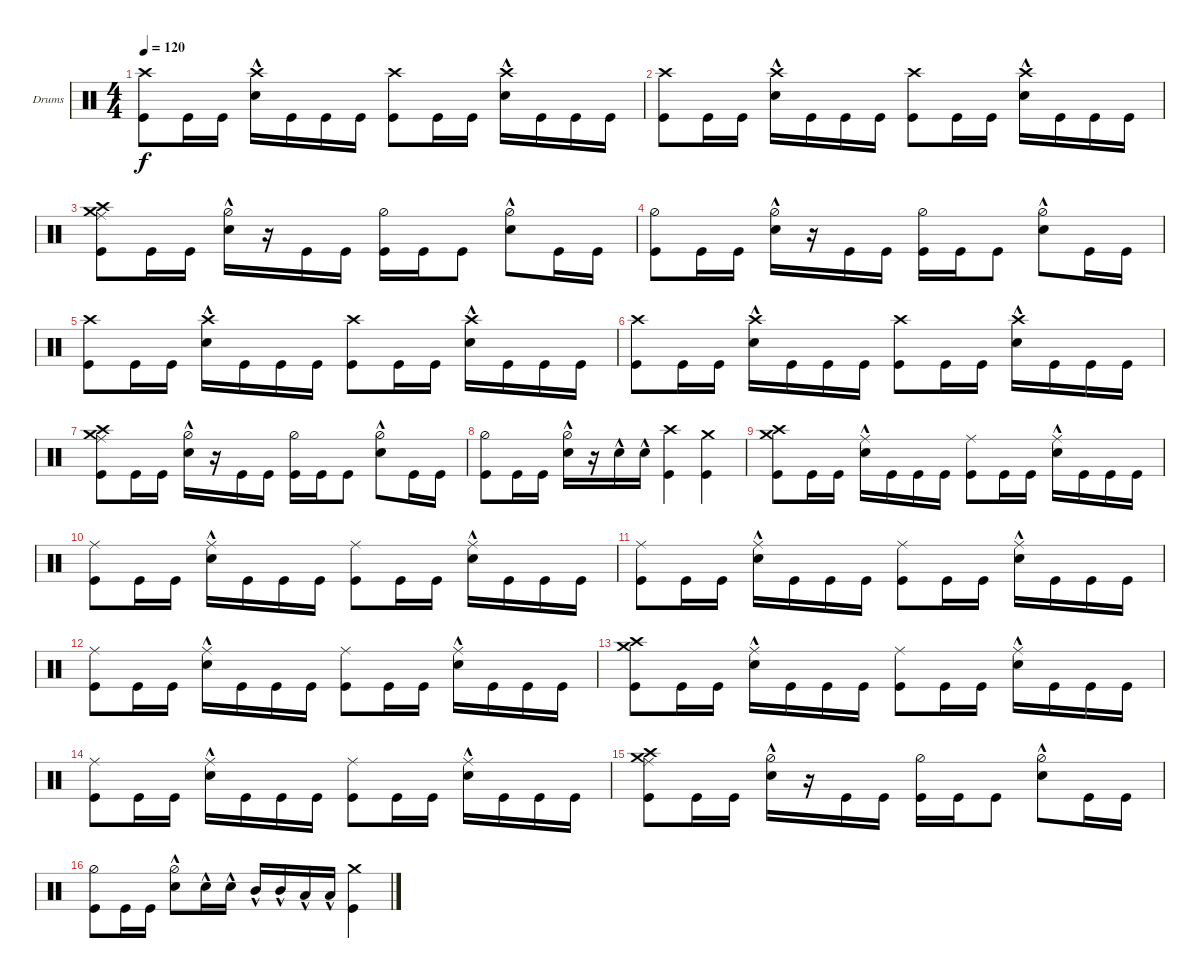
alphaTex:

\bracketExtendMode groupsimilarinstruments
\firstSystemTrackNameOrientation horizontal
\otherSystemsTrackNameOrientation horizontal
\track ("Drumkit" "Drums") {instrument percussion}
\staff {score}
\articulation defaults
\ts (4 4)
\tempo 120
\clef neutral
\scale
0.333333
\ks c
("Kick (hit)" "Crash high (hit)").8{dy f} "Kick (hit)".16 "Kick (hit)".16 ("Snare (hit) 2"{hac} "Crash high (hit)").16 "Kick (hit)".16 "Kick (hit)".16 "Kick (hit)".16 ("Kick (hit)" "Crash high (hit)").8 "Kick (hit)".16 "Kick (hit)".16 ("Snare (hit) 2"{hac} "Crash high (hit)").16 "Kick (hit)".16 "Kick (hit)".16 "Kick (hit)".16 |
\scale
0.333333 ("Kick (hit)" "Crash high (hit)").8 "Kick (hit)".16 "Kick (hit)".16 ("Snare (hit) 2"{hac} "Crash high (hit)").16 "Kick (hit)".16 "Kick (hit)".16 "Kick (hit)".16 ("Kick (hit)" "Crash high (hit)").8 "Kick (hit)".16 "Kick (hit)".16 ("Snare (hit) 2"{hac} "Crash high (hit)").16 "Kick (hit)".16 "Kick (hit)".16 "Kick (hit)".16 |
\scale
0.333333 ("Kick (hit)" "Ride (middle)" "Crash medium (hit)" "Crash high (hit)").8 "Kick (hit)".16 "Kick (hit)".16 ("Snare (hit) 2"{hac} "Hi-Hat (half)").16 r.16 "Kick (hit)".16 "Kick (hit)".16 ("Kick (hit)" "Hi-Hat (half)").16 "Kick (hit)".16 "Kick (hit)".8 ("Snare (hit) 2"{hac} "Hi-Hat (half)").8 "Kick (hit)".16 "Kick (hit)".16 |
\scale
0.333333 ("Kick (hit)" "Hi-Hat (half)").8 "Kick (hit)".16 "Kick (hit)".16 ("Snare (hit) 2"{hac} "Hi-Hat (half)").16 r.16 "Kick (hit)".16 "Kick (hit)".16 ("Kick (hit)" "Hi-Hat (half)").16 "Kick (hit)".16 "Kick (hit)".8 ("Snare (hit) 2"{hac} "Hi-Hat (half)").8 "Kick (hit)".16 "Kick (hit)".16 |
\scale
0.333333 ("Kick (hit)" "Crash high (hit)").8 "Kick (hit)".16 "Kick (hit)".16 ("Snare (hit) 2"{hac} "Crash high (hit)").16 "Kick (hit)".16 "Kick (hit)".16 "Kick (hit)".16 ("Kick (hit)" "Crash high (hit)").8 "Kick (hit)".16 "Kick (hit)".16 ("Snare (hit) 2"{hac} "Crash high (hit)").16 "Kick (hit)".16 "Kick (hit)".16 "Kick (hit)".16 |
\scale
0.333333 ("Kick (hit)" "Crash high (hit)").8 "Kick (hit)".16 "Kick (hit)".16 ("Snare (hit) 2"{hac} "Crash high (hit)").16 "Kick (hit)".16 "Kick (hit)".16 "Kick (hit)".16 ("Kick (hit)" "Crash high (hit)").8 "Kick (hit)".16 "Kick (hit)".16 ("Snare (hit) 2"{hac} "Crash high (hit)").16 "Kick (hit)".16 "Kick (hit)".16 "Kick (hit)".16 |
\scale
0.333333 ("Kick (hit)" "Ride (middle)" "Crash medium (hit)" "Crash high (hit)").8 "Kick (hit)".16 "Kick (hit)".16 ("Snare (hit) 2"{hac} "Hi-Hat (half)").16 r.16 "Kick (hit)".16 "Kick (hit)".16 ("Kick (hit)" "Hi-Hat (half)").16 "Kick (hit)".16 "Kick (hit)".8 ("Snare (hit) 2"{hac} "Hi-Hat (half)").8 "Kick (hit)".16 "Kick (hit)".16 |
\scale
0.333333 ("Kick (hit)" "Hi-Hat (half)").8 "Kick (hit)".16 "Kick (hit)".16 ("Snare (hit) 2"{hac} "Hi-Hat (half)").16 r.16 "Snare (hit) 2"{hac}.16 "Snare (hit) 2"{hac}.16 ("Kick (hit)" "Crash high (hit)").4 ("Kick (hit)" "Crash medium (hit)").4 |
\scale
0.333333 ("Kick (hit)" "Crash medium (hit)" "Crash high (hit)").8 "Kick (hit)".16 "Kick (hit)".16 ("Snare (hit) 2"{hac} "Ride (middle)").16 "Kick (hit)".16 "Kick (hit)".16 "Kick (hit)".16 ("Kick (hit)" "Ride (middle)").8 "Kick (hit)".16 "Kick (hit)".16 ("Snare (hit) 2"{hac} "Ride (middle)").16 "Kick (hit)".16 "Kick (hit)".16 "Kick (hit)".16 |
\scale
0.333333 ("Kick (hit)" "Ride (middle)").8 "Kick (hit)".16 "Kick (hit)".16 ("Snare (hit) 2"{hac} "Ride (middle)").16 "Kick (hit)".16 "Kick (hit)".16 "Kick (hit)".16 ("Kick (hit)" "Ride (middle)").8 "Kick (hit)".16 "Kick (hit)".16 ("Snare (hit) 2"{hac} "Ride (middle)").16 "Kick (hit)".16 "Kick (hit)".16 "Kick (hit)".16 |
\scale
0.333333 ("Kick (hit)" "Ride (middle)").8 "Kick (hit)".16 "Kick (hit)".16 ("Snare (hit) 2"{hac} "Ride (middle)").16 "Kick (hit)".16 "Kick (hit)".16 "Kick (hit)".16 ("Kick (hit)" "Ride (middle)").8 "Kick (hit)".16 "Kick (hit)".16 ("Snare (hit) 2"{hac} "Ride (middle)").16 "Kick (hit)".16 "Kick (hit)".16 "Kick (hit)".16 |
\scale
0.333333 ("Kick (hit)" "Ride (middle)").8 "Kick (hit)".16 "Kick (hit)".16 ("Snare (hit) 2"{hac} "Ride (middle)").16 "Kick (hit)".16 "Kick (hit)".16 "Kick (hit)".16 ("Kick (hit)" "Ride (middle)").8 "Kick (hit)".16 "Kick (hit)".16 ("Snare (hit) 2"{hac} "Ride (middle)").16 "Kick (hit)".16 "Kick (hit)".16 "Kick (hit)".16 |
\scale
0.333333 ("Kick (hit)" "Crash medium (hit)" "Crash high (hit)").8 "Kick (hit)".16 "Kick (hit)".16 ("Snare (hit) 2"{hac} "Ride (middle)").16 "Kick (hit)".16 "Kick (hit)".16 "Kick (hit)".16 ("Kick (hit)" "Ride (middle)").8 "Kick (hit)".16 "Kick (hit)".16 ("Snare (hit) 2"{hac} "Ride (middle)").16 "Kick (hit)".16 "Kick (hit)".16 "Kick (hit)".16 |
\scale
0.333333 ("Kick (hit)" "Ride (middle)").8 "Kick (hit)".16 "Kick (hit)".16 ("Snare (hit) 2"{hac} "Ride (middle)").16 "Kick (hit)".16 "Kick (hit)".16 "Kick (hit)".16 ("Kick (hit)" "Ride (middle)").8 "Kick (hit)".16 "Kick (hit)".16 ("Snare (hit) 2"{hac} "Ride (middle)").16 "Kick (hit)".16 "Kick (hit)".16 "Kick (hit)".16 |
\scale
0.333333 ("Kick (hit)" "Ride (middle)" "Crash medium (hit)" "Crash high (hit)").8 "Kick (hit)".16 "Kick (hit)".16 ("Snare (hit) 2"{hac} "Hi-Hat (half)").16 r.16 "Kick (hit)".16 "Kick (hit)".16 ("Kick (hit)" "Hi-Hat (half)").16 "Kick (hit)".16 "Kick (hit)".8 ("Snare (hit) 2"{hac} "Hi-Hat (half)").8 "Kick (hit)".16 "Kick (hit)".16 |
\scale
0.333333 ("Kick (hit)" "Hi-Hat (half)").8 "Kick (hit)".16 "Kick (hit)".16 ("Snare (hit) 2"{hac} "Hi-Hat (half)").8 "Snare (hit) 2"{hac}.16 "Snare (hit) 2"{hac}.16 "Mid Tom (hit)"{hac}.16 "Mid Tom (hit)"{hac}.16 "Low Tom (hit)"{hac}.16 "Low Tom (hit)"{hac}.16 ("Kick (hit)" "Crash medium (hit)").4
